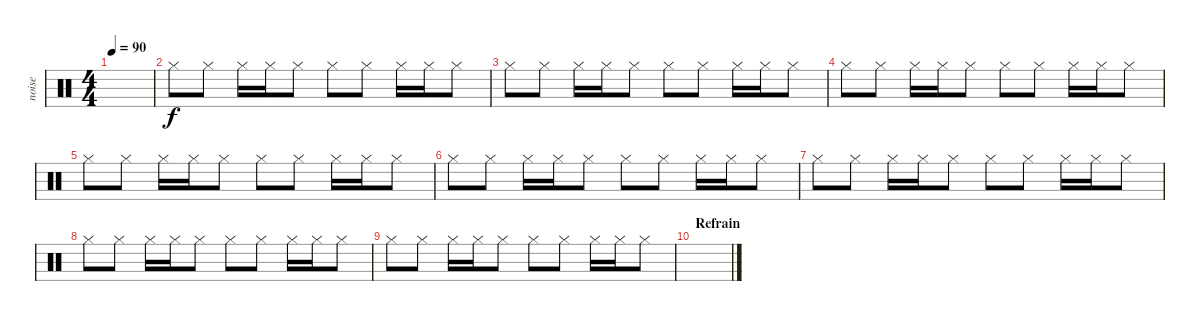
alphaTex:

\track ("noise" "noise") {instrument percussion}
\staff {score}
\articulation defaults
\ts (4 4)
\tempo 90
\clef neutral
\ks c
|
"Hi-Hat (closed)".8 "Hi-Hat (closed)".8 "Hi-Hat (closed)".16 "Hi-Hat (closed)".16 "Hi-Hat (closed)".8 "Hi-Hat (closed)".8 "Hi-Hat (closed)".8 "Hi-Hat (closed)".16 "Hi-Hat (closed)".16 "Hi-Hat (closed)".8 |
"Hi-Hat (closed)".8 "Hi-Hat (closed)".8 "Hi-Hat (closed)".16 "Hi-Hat (closed)".16 "Hi-Hat (closed)".8 "Hi-Hat (closed)".8 "Hi-Hat (closed)".8 "Hi-Hat (closed)".16 "Hi-Hat (closed)".16 "Hi-Hat (closed)".8 |
"Hi-Hat (closed)".8 "Hi-Hat (closed)".8 "Hi-Hat (closed)".16 "Hi-Hat (closed)".16 "Hi-Hat (closed)".8 "Hi-Hat (closed)".8 "Hi-Hat (closed)".8 "Hi-Hat (closed)".16 "Hi-Hat (closed)".16 "Hi-Hat (closed)".8 |
"Hi-Hat (closed)".8 "Hi-Hat (closed)".8 "Hi-Hat (closed)".16 "Hi-Hat (closed)".16 "Hi-Hat (closed)".8 "Hi-Hat (closed)".8 "Hi-Hat (closed)".8 "Hi-Hat (closed)".16 "Hi-Hat (closed)".16 "Hi-Hat (closed)".8 |
"Hi-Hat (closed)".8 "Hi-Hat (closed)".8 "Hi-Hat (closed)".16 "Hi-Hat (closed)".16 "Hi-Hat (closed)".8 "Hi-Hat (closed)".8 "Hi-Hat (closed)".8 "Hi-Hat (closed)".16 "Hi-Hat (closed)".16 "Hi-Hat (closed)".8 |
"Hi-Hat (closed)".8 "Hi-Hat (closed)".8 "Hi-Hat (closed)".16 "Hi-Hat (closed)".16 "Hi-Hat (closed)".8 "Hi-Hat (closed)".8 "Hi-Hat (closed)".8 "Hi-Hat (closed)".16 "Hi-Hat (closed)".16 "Hi-Hat (closed)".8 |
"Hi-Hat (closed)".8 "Hi-Hat (closed)".8 "Hi-Hat (closed)".16 "Hi-Hat (closed)".16 "Hi-Hat (closed)".8 "Hi-Hat (closed)".8 "Hi-Hat (closed)".8 "Hi-Hat (closed)".16 "Hi-Hat (closed)".16 "Hi-Hat (closed)".8 |
"Hi-Hat (closed)".8 "Hi-Hat (closed)".8 "Hi-Hat (closed)".16 "Hi-Hat (closed)".16 "Hi-Hat (closed)".8 "Hi-Hat (closed)".8 "Hi-Hat (closed)".8 "Hi-Hat (closed)".16 "Hi-Hat (closed)".16 "Hi-Hat (closed)".8 |
\section ("" "Refrain")
